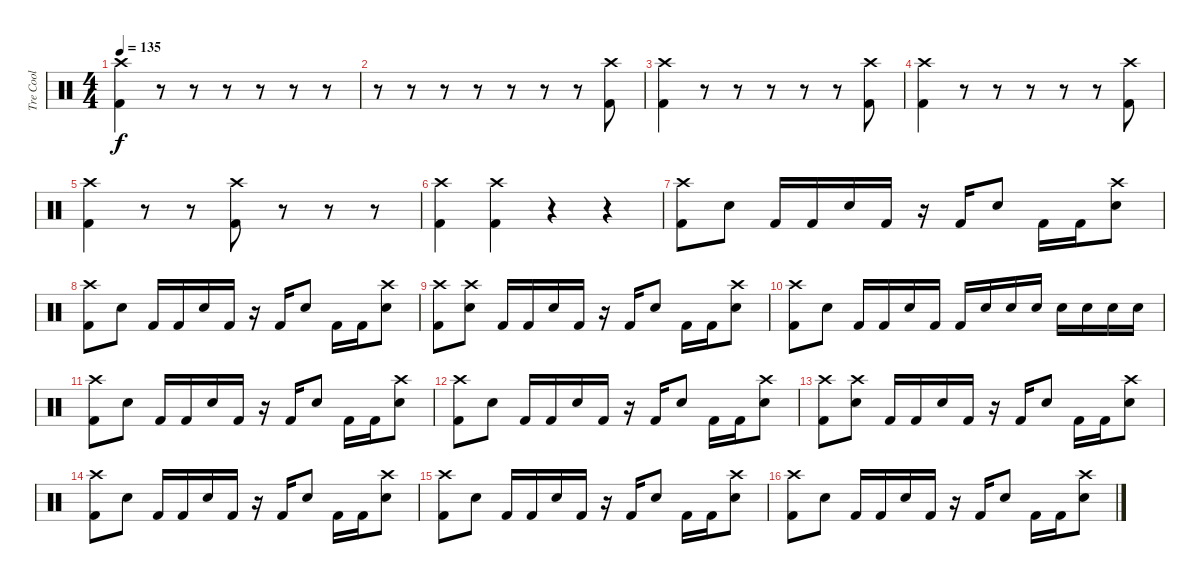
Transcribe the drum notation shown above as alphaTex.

\track ("Tre Cool" "Tre Cool") {instrument percussion}
\staff {score}
\articulation defaults
\ts (4 4)
\tempo 135
\clef neutral
\ks c
("Kick (hit) 2" "Crash high (hit)").4{dy f} r.8{volume 0} r.8 r.8 r.8 r.8 r.8 |
r.8 r.8 r.8 r.8 r.8 r.8 r.8 ("Kick (hit) 2" "Crash high (hit)").8{volume 13} |
("Kick (hit) 2" "Crash high (hit)").4 r.8{volume 0} r.8 r.8 r.8 r.8 ("Kick (hit) 2" "Crash high (hit)").8{volume 13} |
("Kick (hit) 2" "Crash high (hit)").4 r.8{volume 0} r.8 r.8 r.8 r.8 ("Kick (hit) 2" "Crash high (hit)").8{volume 13} |
("Kick (hit) 2" "Crash high (hit)").4 r.8{volume 0} r.8 ("Kick (hit) 2" "Crash high (hit)").8{volume 11} r.8{volume 0} r.8 r.8 |
("Kick (hit) 2" "Crash high (hit)").4{volume 11} ("Kick (hit) 2" "Crash high (hit)").4 r.4{volume 0} r.4 |
("Kick (hit) 2" "Crash high (hit)").8{volume 11} "Electric Snare (hit)".8 "Kick (hit) 2".16 "Kick (hit) 2".16 "Electric Snare (hit)".16 "Kick (hit) 2".16 r.16 "Kick (hit) 2".16 "Electric Snare (hit)".8 "Kick (hit) 2".16 "Kick (hit) 2".16 ("Electric Snare (hit)" "Crash high (hit)").8 |
("Kick (hit) 2" "Crash high (hit)").8 "Electric Snare (hit)".8 "Kick (hit) 2".16 "Kick (hit) 2".16 "Electric Snare (hit)".16 "Kick (hit) 2".16 r.16 "Kick (hit) 2".16 "Electric Snare (hit)".8 "Kick (hit) 2".16 "Kick (hit) 2".16 ("Electric Snare (hit)" "Crash high (hit)").8 |
("Kick (hit) 2" "Crash high (hit)").8 ("Electric Snare (hit)" "Crash high (hit)").8 "Kick (hit) 2".16 "Kick (hit) 2".16 "Electric Snare (hit)".16 "Kick (hit) 2".16 r.16 "Kick (hit) 2".16 "Electric Snare (hit)".8 "Kick (hit) 2".16 "Kick (hit) 2".16 ("Electric Snare (hit)" "Crash high (hit)").8 |
("Kick (hit) 2" "Crash high (hit)").8 "Electric Snare (hit)".8 "Kick (hit) 2".16 "Kick (hit) 2".16 "Electric Snare (hit)".16 "Kick (hit) 2".16 "Kick (hit) 2".16 "Electric Snare (hit)".16 "Electric Snare (hit)".16 "Electric Snare (hit)".16 "Electric Snare (hit)".16 "Electric Snare (hit)".16 "Electric Snare (hit)".16 "Electric Snare (hit)".16 |
("Kick (hit) 2" "Crash high (hit)").8 "Electric Snare (hit)".8 "Kick (hit) 2".16 "Kick (hit) 2".16 "Electric Snare (hit)".16 "Kick (hit) 2".16 r.16 "Kick (hit) 2".16 "Electric Snare (hit)".8 "Kick (hit) 2".16 "Kick (hit) 2".16 ("Electric Snare (hit)" "Crash high (hit)").8 |
("Kick (hit) 2" "Crash high (hit)").8 "Electric Snare (hit)".8 "Kick (hit) 2".16 "Kick (hit) 2".16 "Electric Snare (hit)".16 "Kick (hit) 2".16 r.16 "Kick (hit) 2".16 "Electric Snare (hit)".8 "Kick (hit) 2".16 "Kick (hit) 2".16 ("Electric Snare (hit)" "Crash high (hit)").8 |
("Kick (hit) 2" "Crash high (hit)").8 ("Electric Snare (hit)" "Crash high (hit)").8 "Kick (hit) 2".16 "Kick (hit) 2".16 "Electric Snare (hit)".16 "Kick (hit) 2".16 r.16 "Kick (hit) 2".16 "Electric Snare (hit)".8 "Kick (hit) 2".16 "Kick (hit) 2".16 ("Electric Snare (hit)" "Crash high (hit)").8 |
("Kick (hit) 2" "Crash high (hit)").8 "Electric Snare (hit)".8 "Kick (hit) 2".16 "Kick (hit) 2".16 "Electric Snare (hit)".16 "Kick (hit) 2".16 r.16 "Kick (hit) 2".16 "Electric Snare (hit)".8 "Kick (hit) 2".16 "Kick (hit) 2".16 ("Electric Snare (hit)" "Crash high (hit)").8 |
("Kick (hit) 2" "Crash high (hit)").8 "Electric Snare (hit)".8 "Kick (hit) 2".16 "Kick (hit) 2".16 "Electric Snare (hit)".16 "Kick (hit) 2".16 r.16 "Kick (hit) 2".16 "Electric Snare (hit)".8 "Kick (hit) 2".16 "Kick (hit) 2".16 ("Electric Snare (hit)" "Crash high (hit)").8 |
("Kick (hit) 2" "Crash high (hit)").8 "Electric Snare (hit)".8 "Kick (hit) 2".16 "Kick (hit) 2".16 "Electric Snare (hit)".16 "Kick (hit) 2".16 r.16 "Kick (hit) 2".16 "Electric Snare (hit)".8 "Kick (hit) 2".16 "Kick (hit) 2".16 ("Electric Snare (hit)" "Crash high (hit)").8
